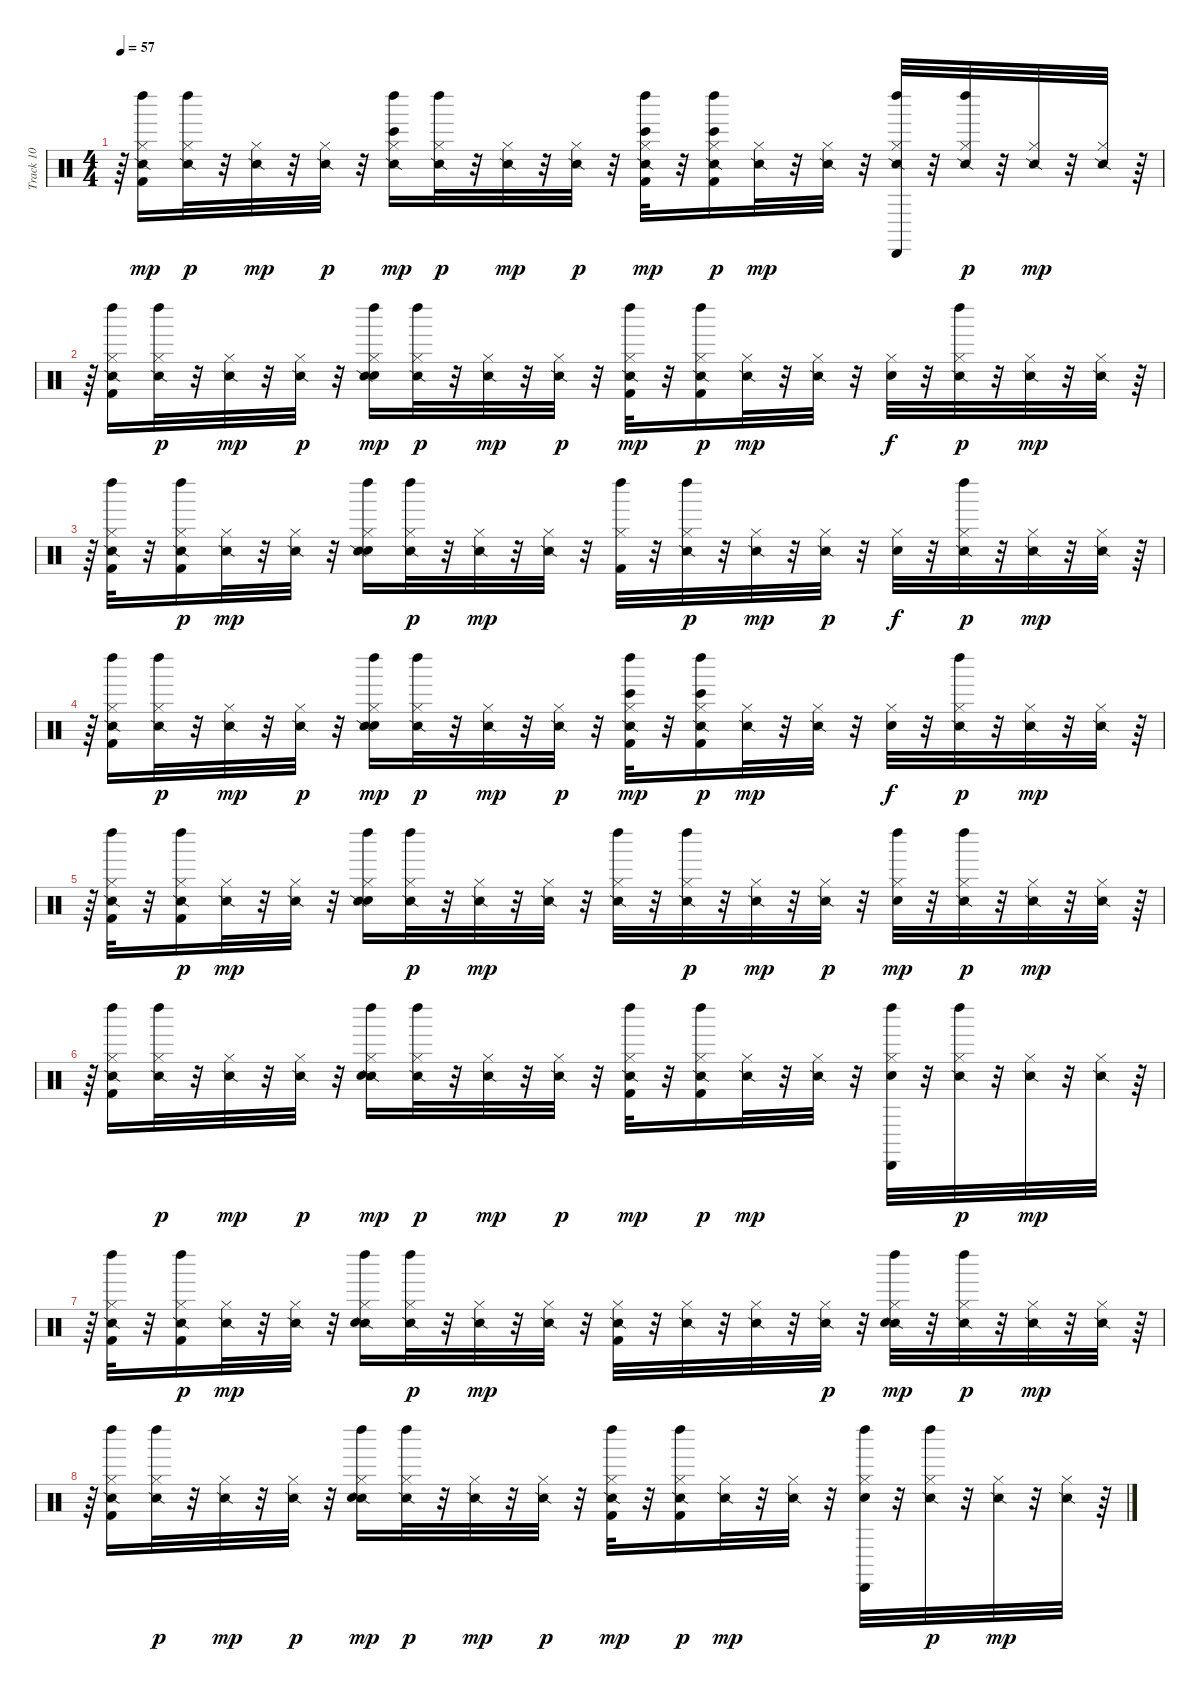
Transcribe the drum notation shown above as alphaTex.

\track ("Track 10" "Track 10") {instrument percussion}
\staff {score}
\articulation defaults
\ts (4 4)
\tempo 57
\clef neutral
\ks c
r.64{dy mp} ("Snare (side stick) 2" "Kick (hit) 2" "Hi-Hat (closed)" "Left Maraca (hit)").16 ("Snare (side stick) 2" "Hi-Hat (closed)" "Left Maraca (hit)").32{dy p} r.32 ("Snare (side stick) 2" "Hi-Hat (closed)").32{dy mp} r.32 ("Snare (side stick) 2" "Hi-Hat (closed)").32{dy p} r.32 ("Bongo High (hit)" "Snare (side stick) 2" "Hi-Hat (closed)" "Left Maraca (hit)").16{dy mp} ("Snare (side stick) 2" "Hi-Hat (closed)" "Left Maraca (hit)").32{dy p} r.32 ("Snare (side stick) 2" "Hi-Hat (closed)").32{dy mp} r.32 ("Snare (side stick) 2" "Hi-Hat (closed)").32{dy p} r.32 ("Bongo High (hit)" "Snare (side stick) 2" "Kick (hit) 2" "Hi-Hat (closed)" "Left Maraca (hit)").32{dy mp} r.32 ("Bongo High (hit)" "Snare (side stick) 2" "Kick (hit) 2" "Hi-Hat (closed)" "Left Maraca (hit)").16{dy p} ("Snare (side stick) 2" "Hi-Hat (closed)").32{dy mp} r.32 ("Snare (side stick) 2" "Hi-Hat (closed)").32 r.32 ("Snare (side stick) 2" "Hi-Hat (closed)" "Left Maraca (hit)" "Cabasa (hit)").32 r.32 ("Snare (side stick) 2" "Hi-Hat (closed)" "Left Maraca (hit)").32{dy p} r.32 ("Snare (side stick) 2" "Hi-Hat (closed)").32{dy mp} r.32 ("Snare (side stick) 2" "Hi-Hat (closed)").32 r.64 |
r.64 ("Snare (side stick) 2" "Kick (hit) 2" "Hi-Hat (closed)" "Left Maraca (hit)").16 ("Snare (side stick) 2" "Hi-Hat (closed)" "Left Maraca (hit)").32{dy p} r.32 ("Snare (side stick) 2" "Hi-Hat (closed)").32{dy mp} r.32 ("Snare (side stick) 2" "Hi-Hat (closed)").32{dy p} r.32 ("Snare (hit) 2" "Snare (side stick) 2" "Hi-Hat (closed)" "Left Maraca (hit)").16{dy mp} ("Snare (side stick) 2" "Hi-Hat (closed)" "Left Maraca (hit)").32{dy p} r.32 ("Snare (side stick) 2" "Hi-Hat (closed)").32{dy mp} r.32 ("Snare (side stick) 2" "Hi-Hat (closed)").32{dy p} r.32 ("Snare (side stick) 2" "Kick (hit) 2" "Hi-Hat (closed)" "Left Maraca (hit)").32{dy mp} r.32 ("Snare (side stick) 2" "Kick (hit) 2" "Hi-Hat (closed)" "Left Maraca (hit)").16{dy p} ("Snare (side stick) 2" "Hi-Hat (closed)").32{dy mp} r.32 ("Snare (side stick) 2" "Hi-Hat (closed)").32 r.32 ("Hi-Hat (closed)" "Snare (hit) 2").32{dy f} r.32 ("Snare (side stick) 2" "Hi-Hat (closed)" "Left Maraca (hit)").32{dy p} r.32 ("Snare (side stick) 2" "Hi-Hat (closed)").32{dy mp} r.32 ("Snare (side stick) 2" "Hi-Hat (closed)").32 r.64 |
r.64 ("Snare (side stick) 2" "Kick (hit) 2" "Hi-Hat (closed)" "Left Maraca (hit)").32 r.32 ("Snare (side stick) 2" "Kick (hit) 2" "Hi-Hat (closed)" "Left Maraca (hit)").16{dy p} ("Snare (side stick) 2" "Hi-Hat (closed)").32{dy mp} r.32 ("Snare (side stick) 2" "Hi-Hat (closed)").32 r.32 ("Snare (hit) 2" "Snare (side stick) 2" "Hi-Hat (closed)" "Left Maraca (hit)").16 ("Snare (side stick) 2" "Hi-Hat (closed)" "Left Maraca (hit)").32{dy p} r.32 ("Snare (side stick) 2" "Hi-Hat (closed)").32{dy mp} r.32 ("Snare (side stick) 2" "Hi-Hat (closed)").32 r.32 ("Kick (hit) 2" "Hi-Hat (closed)" "Left Maraca (hit)").32 r.32 ("Snare (side stick) 2" "Hi-Hat (closed)" "Left Maraca (hit)").32{dy p} r.32 ("Snare (side stick) 2" "Hi-Hat (closed)").32{dy mp} r.32 ("Snare (side stick) 2" "Hi-Hat (closed)").32{dy p} r.32 ("Hi-Hat (closed)" "Snare (hit) 2").32{dy f} r.32 ("Snare (side stick) 2" "Hi-Hat (closed)" "Left Maraca (hit)").32{dy p} r.32 ("Snare (side stick) 2" "Hi-Hat (closed)").32{dy mp} r.32 ("Snare (side stick) 2" "Hi-Hat (closed)").32 r.64 |
r.64 ("Snare (side stick) 2" "Kick (hit) 2" "Hi-Hat (closed)" "Left Maraca (hit)").16 ("Snare (side stick) 2" "Hi-Hat (closed)" "Left Maraca (hit)").32{dy p} r.32 ("Snare (side stick) 2" "Hi-Hat (closed)").32{dy mp} r.32 ("Snare (side stick) 2" "Hi-Hat (closed)").32{dy p} r.32 ("Snare (hit) 2" "Snare (side stick) 2" "Hi-Hat (closed)" "Left Maraca (hit)").16{dy mp} ("Snare (side stick) 2" "Hi-Hat (closed)" "Left Maraca (hit)").32{dy p} r.32 ("Snare (side stick) 2" "Hi-Hat (closed)").32{dy mp} r.32 ("Snare (side stick) 2" "Hi-Hat (closed)").32{dy p} r.32 ("Bongo High (hit)" "Snare (side stick) 2" "Kick (hit) 2" "Hi-Hat (closed)" "Left Maraca (hit)").32{dy mp} r.32 ("Bongo High (hit)" "Snare (side stick) 2" "Kick (hit) 2" "Hi-Hat (closed)" "Left Maraca (hit)").16{dy p} ("Snare (side stick) 2" "Hi-Hat (closed)").32{dy mp} r.32 ("Snare (side stick) 2" "Hi-Hat (closed)").32 r.32 ("Hi-Hat (closed)" "Snare (hit) 2").32{dy f} r.32 ("Snare (side stick) 2" "Hi-Hat (closed)" "Left Maraca (hit)").32{dy p} r.32 ("Snare (side stick) 2" "Hi-Hat (closed)").32{dy mp} r.32 ("Snare (side stick) 2" "Hi-Hat (closed)").32 r.64 |
r.64 ("Snare (side stick) 2" "Kick (hit) 2" "Hi-Hat (closed)" "Left Maraca (hit)").32 r.32 ("Snare (side stick) 2" "Kick (hit) 2" "Hi-Hat (closed)" "Left Maraca (hit)").16{dy p} ("Snare (side stick) 2" "Hi-Hat (closed)").32{dy mp} r.32 ("Snare (side stick) 2" "Hi-Hat (closed)").32 r.32 ("Snare (hit) 2" "Snare (side stick) 2" "Hi-Hat (closed)" "Left Maraca (hit)").16 ("Snare (side stick) 2" "Hi-Hat (closed)" "Left Maraca (hit)").32{dy p} r.32 ("Snare (side stick) 2" "Hi-Hat (closed)").32{dy mp} r.32 ("Snare (side stick) 2" "Hi-Hat (closed)").32 r.32 ("Snare (side stick) 2" "Hi-Hat (closed)" "Left Maraca (hit)").32 r.32 ("Snare (side stick) 2" "Hi-Hat (closed)" "Left Maraca (hit)").32{dy p} r.32 ("Snare (side stick) 2" "Hi-Hat (closed)").32{dy mp} r.32 ("Snare (side stick) 2" "Hi-Hat (closed)").32{dy p} r.32 ("Hi-Hat (closed)" "Left Maraca (hit)" "Snare (hit) 2").32{dy mp} r.32 ("Snare (side stick) 2" "Hi-Hat (closed)" "Left Maraca (hit)").32{dy p} r.32 ("Snare (side stick) 2" "Hi-Hat (closed)").32{dy mp} r.32 ("Snare (side stick) 2" "Hi-Hat (closed)").32 r.64 |
r.64 ("Snare (side stick) 2" "Kick (hit) 2" "Hi-Hat (closed)" "Left Maraca (hit)").16 ("Snare (side stick) 2" "Hi-Hat (closed)" "Left Maraca (hit)").32{dy p} r.32 ("Snare (side stick) 2" "Hi-Hat (closed)").32{dy mp} r.32 ("Snare (side stick) 2" "Hi-Hat (closed)").32{dy p} r.32 ("Snare (side stick) 2" "Hi-Hat (closed)" "Left Maraca (hit)" "Snare (hit) 2").16{dy mp} ("Snare (side stick) 2" "Hi-Hat (closed)" "Left Maraca (hit)").32{dy p} r.32 ("Snare (side stick) 2" "Hi-Hat (closed)").32{dy mp} r.32 ("Snare (side stick) 2" "Hi-Hat (closed)").32{dy p} r.32 ("Snare (side stick) 2" "Kick (hit) 2" "Hi-Hat (closed)" "Left Maraca (hit)").32{dy mp} r.32 ("Snare (side stick) 2" "Kick (hit) 2" "Hi-Hat (closed)" "Left Maraca (hit)").16{dy p} ("Snare (side stick) 2" "Hi-Hat (closed)").32{dy mp} r.32 ("Snare (side stick) 2" "Hi-Hat (closed)").32 r.32 ("Hi-Hat (closed)" "Left Maraca (hit)" "Cabasa (hit)" "Snare (hit) 2").32 r.32 ("Snare (side stick) 2" "Hi-Hat (closed)" "Left Maraca (hit)").32{dy p} r.32 ("Snare (side stick) 2" "Hi-Hat (closed)").32{dy mp} r.32 ("Snare (side stick) 2" "Hi-Hat (closed)").32 r.64 |
r.64 ("Snare (side stick) 2" "Kick (hit) 2" "Hi-Hat (closed)" "Left Maraca (hit)").32 r.32 ("Snare (side stick) 2" "Kick (hit) 2" "Hi-Hat (closed)" "Left Maraca (hit)").16{dy p} ("Snare (side stick) 2" "Hi-Hat (closed)").32{dy mp} r.32 ("Snare (side stick) 2" "Hi-Hat (closed)").32 r.32 ("Snare (side stick) 2" "Hi-Hat (closed)" "Left Maraca (hit)" "Snare (hit) 2").16 ("Snare (side stick) 2" "Hi-Hat (closed)" "Left Maraca (hit)").32{dy p} r.32 ("Snare (side stick) 2" "Hi-Hat (closed)").32{dy mp} r.32 ("Snare (side stick) 2" "Hi-Hat (closed)").32 r.32 ("Kick (hit) 2" "Snare (side stick) 2" "Hi-Hat (closed)").32 r.32 ("Snare (side stick) 2" "Hi-Hat (closed)").32 r.32 ("Snare (side stick) 2" "Hi-Hat (closed)").32 r.32 ("Snare (side stick) 2" "Hi-Hat (closed)").32{dy p} r.32 ("Snare (side stick) 2" "Hi-Hat (closed)" "Left Maraca (hit)" "Snare (hit) 2").32{dy mp} r.32 ("Snare (side stick) 2" "Hi-Hat (closed)" "Left Maraca (hit)").32{dy p} r.32 ("Snare (side stick) 2" "Hi-Hat (closed)").32{dy mp} r.32 ("Snare (side stick) 2" "Hi-Hat (closed)").32 r.64 |
r.64 ("Snare (side stick) 2" "Kick (hit) 2" "Hi-Hat (closed)" "Left Maraca (hit)").16 ("Snare (side stick) 2" "Hi-Hat (closed)" "Left Maraca (hit)").32{dy p} r.32 ("Snare (side stick) 2" "Hi-Hat (closed)").32{dy mp} r.32 ("Snare (side stick) 2" "Hi-Hat (closed)").32{dy p} r.32 ("Snare (side stick) 2" "Hi-Hat (closed)" "Left Maraca (hit)" "Snare (hit) 2").16{dy mp} ("Snare (side stick) 2" "Hi-Hat (closed)" "Left Maraca (hit)").32{dy p} r.32 ("Snare (side stick) 2" "Hi-Hat (closed)").32{dy mp} r.32 ("Snare (side stick) 2" "Hi-Hat (closed)").32{dy p} r.32 ("Snare (side stick) 2" "Kick (hit) 2" "Hi-Hat (closed)" "Left Maraca (hit)").32{dy mp} r.32 ("Snare (side stick) 2" "Kick (hit) 2" "Hi-Hat (closed)" "Left Maraca (hit)").16{dy p} ("Snare (side stick) 2" "Hi-Hat (closed)").32{dy mp} r.32 ("Snare (side stick) 2" "Hi-Hat (closed)").32 r.32 ("Hi-Hat (closed)" "Left Maraca (hit)" "Cabasa (hit)" "Snare (hit) 2").32 r.32 ("Snare (side stick) 2" "Hi-Hat (closed)" "Left Maraca (hit)").32{dy p} r.32 ("Snare (side stick) 2" "Hi-Hat (closed)").32{dy mp} r.32 ("Snare (side stick) 2" "Hi-Hat (closed)").32 r.64
